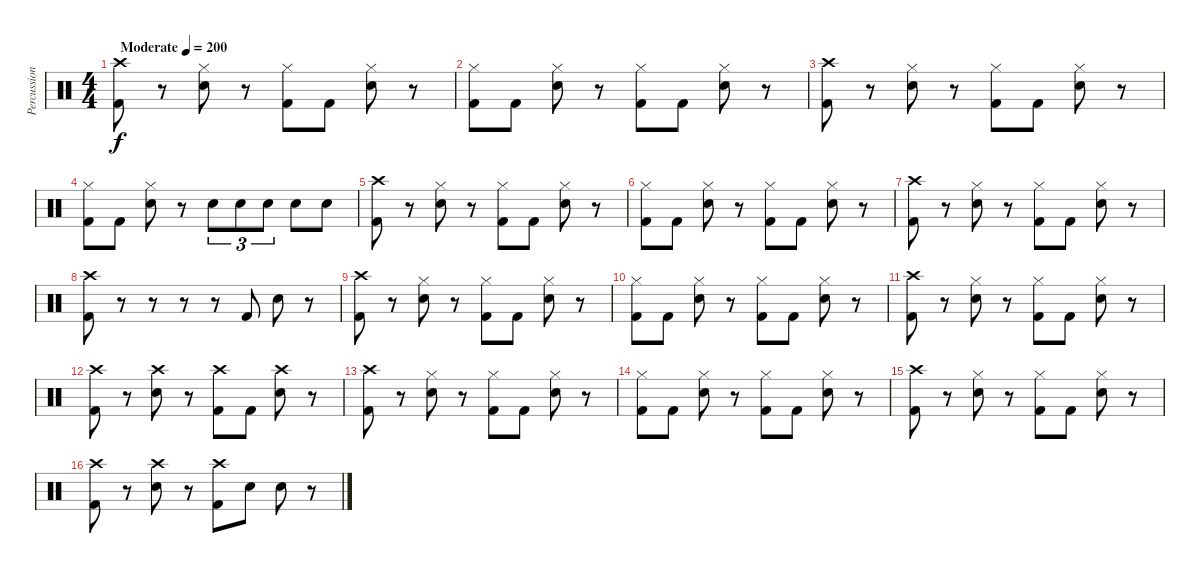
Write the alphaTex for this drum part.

\track ("Percussion" "Percussion") {instrument percussion}
\staff {score}
\articulation defaults
\ts (4 4)
\tempo (200 "Moderate")
\clef neutral
\ks c
("Kick (hit) 2" "Crash high (hit)").8{dy f} r.8 ("Hi-Hat (closed)" "Snare (hit) 2").8 r.8 ("Kick (hit) 2" "Hi-Hat (closed)").8 "Kick (hit) 2".8 ("Snare (hit) 2" "Hi-Hat (closed)").8 r.8 |
("Kick (hit) 2" "Hi-Hat (closed)").8 "Kick (hit) 2".8 ("Snare (hit) 2" "Hi-Hat (closed)").8 r.8 ("Kick (hit) 2" "Hi-Hat (closed)").8 "Kick (hit) 2".8 ("Snare (hit) 2" "Hi-Hat (closed)").8 r.8 |
("Kick (hit) 2" "Crash high (hit)").8 r.8 ("Hi-Hat (closed)" "Snare (hit) 2").8 r.8 ("Kick (hit) 2" "Hi-Hat (closed)").8 "Kick (hit) 2".8 ("Snare (hit) 2" "Hi-Hat (closed)").8 r.8 |
("Kick (hit) 2" "Hi-Hat (closed)").8 "Kick (hit) 2".8 ("Snare (hit) 2" "Hi-Hat (closed)").8 r.8 "Snare (hit) 2".8{tu (3 2)} "Snare (hit) 2".8{tu (3 2)} "Snare (hit) 2".8{tu (3 2)} "Snare (hit) 2".8 "Snare (hit) 2".8 |
("Kick (hit) 2" "Crash high (hit)").8 r.8 ("Hi-Hat (closed)" "Snare (hit) 2").8 r.8 ("Kick (hit) 2" "Hi-Hat (closed)").8 "Kick (hit) 2".8 ("Snare (hit) 2" "Hi-Hat (closed)").8 r.8 |
("Kick (hit) 2" "Hi-Hat (closed)").8 "Kick (hit) 2".8 ("Snare (hit) 2" "Hi-Hat (closed)").8 r.8 ("Kick (hit) 2" "Hi-Hat (closed)").8 "Kick (hit) 2".8 ("Snare (hit) 2" "Hi-Hat (closed)").8 r.8 |
("Kick (hit) 2" "Crash high (hit)").8 r.8 ("Hi-Hat (closed)" "Snare (hit) 2").8 r.8 ("Kick (hit) 2" "Hi-Hat (closed)").8 "Kick (hit) 2".8 ("Snare (hit) 2" "Hi-Hat (closed)").8 r.8 |
("Crash high (hit)" "Kick (hit) 2").8 r.8 r.8 r.8 r.8 "Kick (hit) 2".8 "Snare (hit) 2".8 r.8 |
("Kick (hit) 2" "Crash high (hit)").8 r.8 ("Hi-Hat (closed)" "Snare (hit) 2").8 r.8 ("Kick (hit) 2" "Hi-Hat (closed)").8 "Kick (hit) 2".8 ("Snare (hit) 2" "Hi-Hat (closed)").8 r.8 |
("Kick (hit) 2" "Hi-Hat (closed)").8 "Kick (hit) 2".8 ("Snare (hit) 2" "Hi-Hat (closed)").8 r.8 ("Kick (hit) 2" "Hi-Hat (closed)").8 "Kick (hit) 2".8 ("Snare (hit) 2" "Hi-Hat (closed)").8 r.8 |
("Kick (hit) 2" "Crash high (hit)").8 r.8 ("Hi-Hat (closed)" "Snare (hit) 2").8 r.8 ("Kick (hit) 2" "Hi-Hat (closed)").8 "Kick (hit) 2".8 ("Snare (hit) 2" "Hi-Hat (closed)").8 r.8 |
("Kick (hit) 2" "Crash high (hit)").8 r.8 ("Crash high (hit)" "Snare (hit) 2").8 r.8 ("Crash high (hit)" "Kick (hit) 2").8 "Kick (hit) 2".8 ("Crash high (hit)" "Snare (hit) 2").8 r.8 |
("Kick (hit) 2" "Crash high (hit)").8 r.8 ("Hi-Hat (closed)" "Snare (hit) 2").8 r.8 ("Kick (hit) 2" "Hi-Hat (closed)").8 "Kick (hit) 2".8 ("Snare (hit) 2" "Hi-Hat (closed)").8 r.8 |
("Kick (hit) 2" "Hi-Hat (closed)").8 "Kick (hit) 2".8 ("Snare (hit) 2" "Hi-Hat (closed)").8 r.8 ("Kick (hit) 2" "Hi-Hat (closed)").8 "Kick (hit) 2".8 ("Snare (hit) 2" "Hi-Hat (closed)").8 r.8 |
("Kick (hit) 2" "Crash high (hit)").8 r.8 ("Hi-Hat (closed)" "Snare (hit) 2").8 r.8 ("Kick (hit) 2" "Hi-Hat (closed)").8 "Kick (hit) 2".8 ("Snare (hit) 2" "Hi-Hat (closed)").8 r.8 |
("Kick (hit) 2" "Crash high (hit)").8 r.8 ("Crash high (hit)" "Snare (hit) 2").8 r.8 ("Crash high (hit)" "Kick (hit) 2").8 "Snare (hit) 2".8 "Snare (hit) 2".8 r.8
